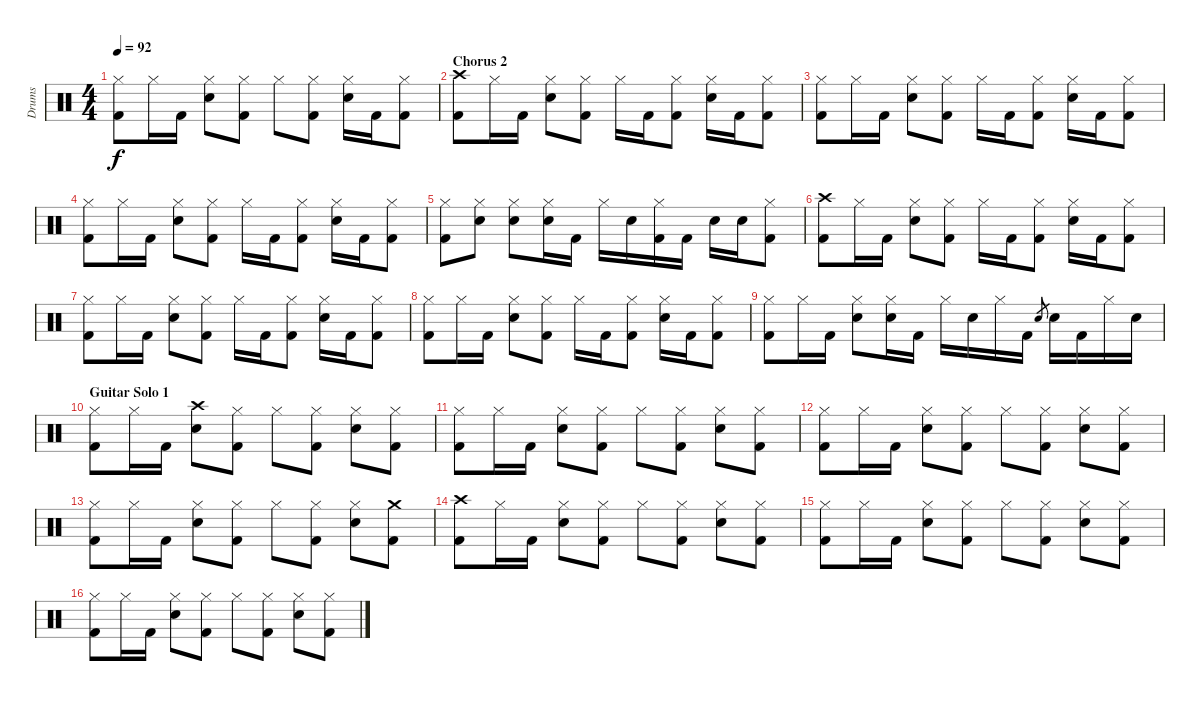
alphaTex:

\track ("Drums" "Drums") {instrument percussion}
\staff {score}
\articulation defaults
\ts (4 4)
\tempo 92
\clef neutral
\ks c
("Hi-Hat (closed)" "Kick (hit) 2").8{dy f} "Hi-Hat (closed)".16 "Kick (hit) 2".16 ("Hi-Hat (closed)" "Electric Snare (hit)").8 ("Hi-Hat (closed)" "Kick (hit) 2").8 "Hi-Hat (closed)".8 ("Hi-Hat (closed)" "Kick (hit) 2").8 ("Hi-Hat (closed)" "Electric Snare (hit)").16 "Kick (hit) 2".16 ("Hi-Hat (closed)" "Kick (hit) 2").8 |
\section ("" "Chorus 2")
("Crash high (hit)" "Kick (hit) 2").8 "Hi-Hat (closed)".16 "Kick (hit) 2".16 ("Hi-Hat (closed)" "Electric Snare (hit)").8 ("Hi-Hat (closed)" "Kick (hit) 2").8 "Hi-Hat (closed)".16 "Kick (hit) 2".16 ("Hi-Hat (closed)" "Kick (hit) 2").8 ("Hi-Hat (closed)" "Electric Snare (hit)").16 "Kick (hit) 2".16 ("Hi-Hat (closed)" "Kick (hit) 2").8 |
("Hi-Hat (closed)" "Kick (hit) 2").8 "Hi-Hat (closed)".16 "Kick (hit) 2".16 ("Hi-Hat (closed)" "Electric Snare (hit)").8 ("Hi-Hat (closed)" "Kick (hit) 2").8 "Hi-Hat (closed)".16 "Kick (hit) 2".16 ("Hi-Hat (closed)" "Kick (hit) 2").8 ("Hi-Hat (closed)" "Electric Snare (hit)").16 "Kick (hit) 2".16 ("Hi-Hat (closed)" "Kick (hit) 2").8 |
("Hi-Hat (closed)" "Kick (hit) 2").8 "Hi-Hat (closed)".16 "Kick (hit) 2".16 ("Hi-Hat (closed)" "Electric Snare (hit)").8 ("Hi-Hat (closed)" "Kick (hit) 2").8 "Hi-Hat (closed)".16 "Kick (hit) 2".16 ("Hi-Hat (closed)" "Kick (hit) 2").8 ("Hi-Hat (closed)" "Electric Snare (hit)").16 "Kick (hit) 2".16 ("Hi-Hat (closed)" "Kick (hit) 2").8 |
("Hi-Hat (closed)" "Kick (hit) 2").8 ("Hi-Hat (closed)" "Electric Snare (hit)").8 ("Hi-Hat (closed)" "Electric Snare (hit)").8 ("Hi-Hat (closed)" "Electric Snare (hit)").16 "Kick (hit) 2".16 "Hi-Hat (closed)".16 "Electric Snare (hit)".16 ("Hi-Hat (closed)" "Kick (hit) 2").16 "Kick (hit) 2".16 "Electric Snare (hit)".16 "Electric Snare (hit)".16 ("Hi-Hat (closed)" "Kick (hit) 2").8 |
("Crash high (hit)" "Kick (hit) 2").8 "Hi-Hat (closed)".16 "Kick (hit) 2".16 ("Hi-Hat (closed)" "Electric Snare (hit)").8 ("Hi-Hat (closed)" "Kick (hit) 2").8 "Hi-Hat (closed)".16 "Kick (hit) 2".16 ("Hi-Hat (closed)" "Kick (hit) 2").8 ("Hi-Hat (closed)" "Electric Snare (hit)").16 "Kick (hit) 2".16 ("Hi-Hat (closed)" "Kick (hit) 2").8 |
("Hi-Hat (closed)" "Kick (hit) 2").8 "Hi-Hat (closed)".16 "Kick (hit) 2".16 ("Hi-Hat (closed)" "Electric Snare (hit)").8 ("Hi-Hat (closed)" "Kick (hit) 2").8 "Hi-Hat (closed)".16 "Kick (hit) 2".16 ("Hi-Hat (closed)" "Kick (hit) 2").8 ("Hi-Hat (closed)" "Electric Snare (hit)").16 "Kick (hit) 2".16 ("Hi-Hat (closed)" "Kick (hit) 2").8 |
("Hi-Hat (closed)" "Kick (hit) 2").8 "Hi-Hat (closed)".16 "Kick (hit) 2".16 ("Hi-Hat (closed)" "Electric Snare (hit)").8 ("Hi-Hat (closed)" "Kick (hit) 2").8 "Hi-Hat (closed)".16 "Kick (hit) 2".16 ("Hi-Hat (closed)" "Kick (hit) 2").8 ("Hi-Hat (closed)" "Electric Snare (hit)").16 "Kick (hit) 2".16 ("Hi-Hat (closed)" "Kick (hit) 2").8 |
("Hi-Hat (closed)" "Kick (hit) 2").8 "Hi-Hat (closed)".16 "Kick (hit) 2".16 ("Hi-Hat (closed)" "Electric Snare (hit)").8 ("Hi-Hat (closed)" "Electric Snare (hit)").16 "Kick (hit) 2".16 "Hi-Hat (closed)".16 "Electric Snare (hit)".16 "Hi-Hat (closed)".16 "Kick (hit) 2".16 "Electric Snare (hit)".8{gr} "Electric Snare (hit)".16 "Kick (hit) 2".16 "Hi-Hat (closed)".16 "Electric Snare (hit)".16 |
\section ("" "Guitar Solo 1")
("Hi-Hat (closed)" "Kick (hit) 2").8 "Hi-Hat (closed)".16 "Kick (hit) 2".16 ("Crash high (hit)" "Electric Snare (hit)").8 ("Hi-Hat (closed)" "Kick (hit) 2").8 "Hi-Hat (closed)".8 ("Hi-Hat (closed)" "Kick (hit) 2").8 ("Hi-Hat (closed)" "Electric Snare (hit)").8 ("Hi-Hat (closed)" "Kick (hit) 2").8 |
("Hi-Hat (closed)" "Kick (hit) 2").8 "Hi-Hat (closed)".16 "Kick (hit) 2".16 ("Hi-Hat (closed)" "Electric Snare (hit)").8 ("Hi-Hat (closed)" "Kick (hit) 2").8 "Hi-Hat (closed)".8 ("Hi-Hat (closed)" "Kick (hit) 2").8 ("Hi-Hat (closed)" "Electric Snare (hit)").8 ("Hi-Hat (closed)" "Kick (hit) 2").8 |
("Hi-Hat (closed)" "Kick (hit) 2").8 "Hi-Hat (closed)".16 "Kick (hit) 2".16 ("Hi-Hat (closed)" "Electric Snare (hit)").8 ("Hi-Hat (closed)" "Kick (hit) 2").8 "Hi-Hat (closed)".8 ("Hi-Hat (closed)" "Kick (hit) 2").8 ("Hi-Hat (closed)" "Electric Snare (hit)").8 ("Hi-Hat (closed)" "Kick (hit) 2").8 |
("Hi-Hat (closed)" "Kick (hit) 2").8 "Hi-Hat (closed)".16 "Kick (hit) 2".16 ("Hi-Hat (closed)" "Electric Snare (hit)").8 ("Hi-Hat (closed)" "Kick (hit) 2").8 "Hi-Hat (closed)".8 ("Hi-Hat (closed)" "Kick (hit) 2").8 ("Hi-Hat (closed)" "Electric Snare (hit)").8 ("Crash medium (hit)" "Kick (hit) 2").8 |
("Crash high (hit)" "Kick (hit) 2").8 "Hi-Hat (closed)".16 "Kick (hit) 2".16 ("Hi-Hat (closed)" "Electric Snare (hit)").8 ("Hi-Hat (closed)" "Kick (hit) 2").8 "Hi-Hat (closed)".8 ("Hi-Hat (closed)" "Kick (hit) 2").8 ("Hi-Hat (closed)" "Electric Snare (hit)").8 ("Hi-Hat (closed)" "Kick (hit) 2").8 |
("Hi-Hat (closed)" "Kick (hit) 2").8 "Hi-Hat (closed)".16 "Kick (hit) 2".16 ("Hi-Hat (closed)" "Electric Snare (hit)").8 ("Hi-Hat (closed)" "Kick (hit) 2").8 "Hi-Hat (closed)".8 ("Hi-Hat (closed)" "Kick (hit) 2").8 ("Hi-Hat (closed)" "Electric Snare (hit)").8 ("Hi-Hat (closed)" "Kick (hit) 2").8 |
("Hi-Hat (closed)" "Kick (hit) 2").8 "Hi-Hat (closed)".16 "Kick (hit) 2".16 ("Hi-Hat (closed)" "Electric Snare (hit)").8 ("Hi-Hat (closed)" "Kick (hit) 2").8 "Hi-Hat (closed)".8 ("Hi-Hat (closed)" "Kick (hit) 2").8 ("Hi-Hat (closed)" "Electric Snare (hit)").8 ("Hi-Hat (closed)" "Kick (hit) 2").8
